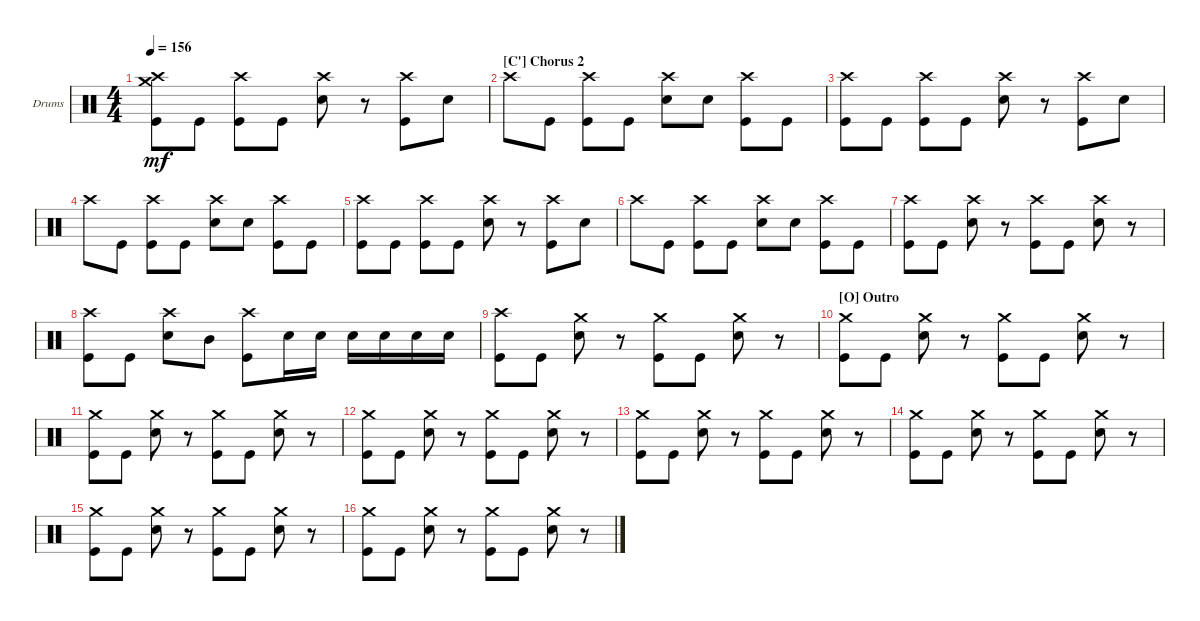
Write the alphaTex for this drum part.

\defaultSystemsLayout 4
\bracketExtendMode groupsimilarinstruments
\firstSystemTrackNameOrientation horizontal
\otherSystemsTrackNameOrientation horizontal
\track ("Drumkit" "Drums") {instrument percussion}
\staff {score}
\articulation defaults
\ts (4 4)
\tempo 156
\clef neutral
\ks c
("Kick (hit)" "Crash medium (hit)" "Crash high (hit)").8{dy mf} "Kick (hit)".8 ("Kick (hit)" "Crash high (hit)").8 "Kick (hit)".8 ("Snare (hit) 2" "Crash high (hit)").8 r.8 ("Kick (hit)" "Crash high (hit)").8 "Snare (hit) 2".8 |
\section ("C'" "Chorus 2")
"Crash high (hit)".8 "Kick (hit)".8 ("Kick (hit)" "Crash high (hit)").8 "Kick (hit)".8 ("Snare (hit) 2" "Crash high (hit)").8 "Snare (hit) 2".8 ("Crash high (hit)" "Kick (hit)").8 "Kick (hit)".8 |
("Kick (hit)" "Crash high (hit)").8 "Kick (hit)".8 ("Kick (hit)" "Crash high (hit)").8 "Kick (hit)".8 ("Snare (hit) 2" "Crash high (hit)").8 r.8 ("Kick (hit)" "Crash high (hit)").8 "Snare (hit) 2".8 |
"Crash high (hit)".8 "Kick (hit)".8 ("Kick (hit)" "Crash high (hit)").8 "Kick (hit)".8 ("Snare (hit) 2" "Crash high (hit)").8 "Snare (hit) 2".8 ("Crash high (hit)" "Kick (hit)").8 "Kick (hit)".8 |
("Kick (hit)" "Crash high (hit)").8 "Kick (hit)".8 ("Kick (hit)" "Crash high (hit)").8 "Kick (hit)".8 ("Snare (hit) 2" "Crash high (hit)").8 r.8 ("Kick (hit)" "Crash high (hit)").8 "Snare (hit) 2".8 |
"Crash high (hit)".8 "Kick (hit)".8 ("Kick (hit)" "Crash high (hit)").8 "Kick (hit)".8 ("Snare (hit) 2" "Crash high (hit)").8 "Snare (hit) 2".8 ("Crash high (hit)" "Kick (hit)").8 "Kick (hit)".8 |
("Kick (hit)" "Crash high (hit)").8 "Kick (hit)".8 ("Snare (hit) 2" "Crash high (hit)").8 r.8 ("Kick (hit)" "Crash high (hit)").8 "Kick (hit)".8 ("Snare (hit) 2" "Crash high (hit)").8 r.8 |
("Kick (hit)" "Crash high (hit)").8 "Kick (hit)".8 ("Snare (hit) 2" "Crash high (hit)").8 "Mid Tom (hit)".8 ("Kick (hit)" "Crash high (hit)").8 "Snare (hit) 2".16 "Snare (hit) 2".16 "Snare (hit) 2".16 "Snare (hit) 2".16 "Snare (hit) 2".16 "Snare (hit) 2".16 |
("Kick (hit)" "Crash high (hit)").8 "Kick (hit)".8 ("Snare (hit) 2" "Crash medium (hit)").8 r.8 ("Kick (hit)" "Crash medium (hit)").8 "Kick (hit)".8 ("Snare (hit) 2" "Crash medium (hit)").8 r.8 |
\section ("O" "Outro")
("Kick (hit)" "Crash medium (hit)").8 "Kick (hit)".8 ("Snare (hit) 2" "Crash medium (hit)").8 r.8 ("Kick (hit)" "Crash medium (hit)").8 "Kick (hit)".8 ("Snare (hit) 2" "Crash medium (hit)").8 r.8 |
("Kick (hit)" "Crash medium (hit)").8 "Kick (hit)".8 ("Snare (hit) 2" "Crash medium (hit)").8 r.8 ("Kick (hit)" "Crash medium (hit)").8 "Kick (hit)".8 ("Snare (hit) 2" "Crash medium (hit)").8 r.8 |
("Kick (hit)" "Crash medium (hit)").8 "Kick (hit)".8 ("Snare (hit) 2" "Crash medium (hit)").8 r.8 ("Kick (hit)" "Crash medium (hit)").8 "Kick (hit)".8 ("Snare (hit) 2" "Crash medium (hit)").8 r.8 |
("Kick (hit)" "Crash medium (hit)").8 "Kick (hit)".8 ("Snare (hit) 2" "Crash medium (hit)").8 r.8 ("Kick (hit)" "Crash medium (hit)").8 "Kick (hit)".8 ("Snare (hit) 2" "Crash medium (hit)").8 r.8 |
("Kick (hit)" "Crash medium (hit)").8 "Kick (hit)".8 ("Snare (hit) 2" "Crash medium (hit)").8 r.8 ("Kick (hit)" "Crash medium (hit)").8 "Kick (hit)".8 ("Snare (hit) 2" "Crash medium (hit)").8 r.8 |
("Kick (hit)" "Crash medium (hit)").8 "Kick (hit)".8 ("Snare (hit) 2" "Crash medium (hit)").8 r.8 ("Kick (hit)" "Crash medium (hit)").8 "Kick (hit)".8 ("Snare (hit) 2" "Crash medium (hit)").8 r.8 |
("Kick (hit)" "Crash medium (hit)").8 "Kick (hit)".8 ("Snare (hit) 2" "Crash medium (hit)").8 r.8 ("Kick (hit)" "Crash medium (hit)").8 "Kick (hit)".8 ("Snare (hit) 2" "Crash medium (hit)").8 r.8
